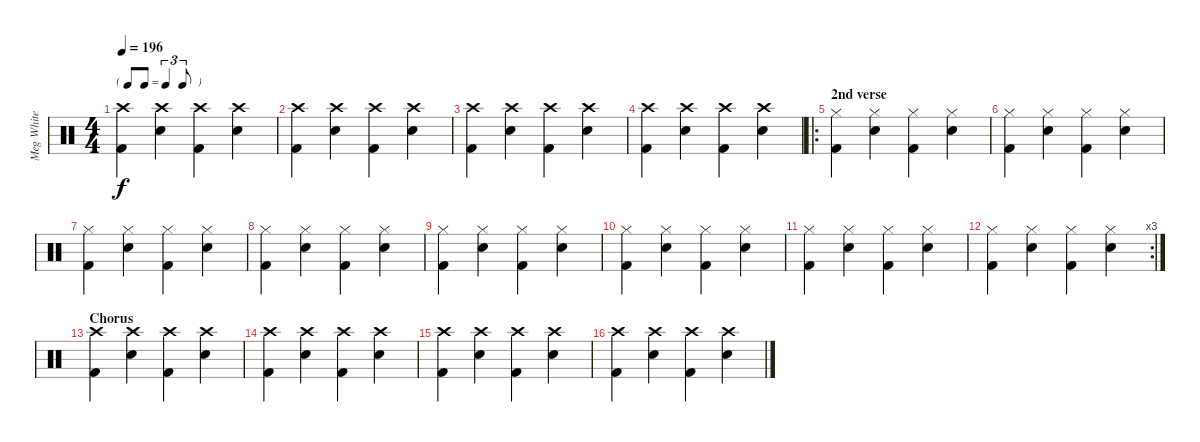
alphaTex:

\track ("Meg White" "Meg White") {instrument percussion}
\staff {score}
\articulation defaults
\ts (4 4)
\tf triplet8th
\tempo 196
\clef neutral
\ks c
("Crash high (hit)" "Kick (hit) 2").4{dy f} ("Crash high (hit)" "Electric Snare (hit)").4 ("Crash high (hit)" "Kick (hit) 2").4 ("Crash high (hit)" "Electric Snare (hit)").4 |
("Crash high (hit)" "Kick (hit) 2").4 ("Crash high (hit)" "Electric Snare (hit)").4 ("Crash high (hit)" "Kick (hit) 2").4 ("Crash high (hit)" "Electric Snare (hit)").4 |
("Crash high (hit)" "Kick (hit) 2").4 ("Crash high (hit)" "Electric Snare (hit)").4 ("Crash high (hit)" "Kick (hit) 2").4 ("Crash high (hit)" "Electric Snare (hit)").4 |
("Crash high (hit)" "Kick (hit) 2").4 ("Crash high (hit)" "Electric Snare (hit)").4 ("Crash high (hit)" "Kick (hit) 2").4 ("Crash high (hit)" "Electric Snare (hit)").4 |
\ro
\section ("" "2nd verse")
("Hi-Hat (closed)" "Kick (hit) 2").4 ("Hi-Hat (closed)" "Electric Snare (hit)").4 ("Hi-Hat (closed)" "Kick (hit) 2").4 ("Hi-Hat (closed)" "Electric Snare (hit)").4 |
("Hi-Hat (closed)" "Kick (hit) 2").4 ("Hi-Hat (closed)" "Electric Snare (hit)").4 ("Hi-Hat (closed)" "Kick (hit) 2").4 ("Hi-Hat (closed)" "Electric Snare (hit)").4 |
("Hi-Hat (closed)" "Kick (hit) 2").4 ("Hi-Hat (closed)" "Electric Snare (hit)").4 ("Hi-Hat (closed)" "Kick (hit) 2").4 ("Hi-Hat (closed)" "Electric Snare (hit)").4 |
("Hi-Hat (closed)" "Kick (hit) 2").4 ("Hi-Hat (closed)" "Electric Snare (hit)").4 ("Hi-Hat (closed)" "Kick (hit) 2").4 ("Hi-Hat (closed)" "Electric Snare (hit)").4 |
("Hi-Hat (closed)" "Kick (hit) 2").4 ("Hi-Hat (closed)" "Electric Snare (hit)").4 ("Hi-Hat (closed)" "Kick (hit) 2").4 ("Hi-Hat (closed)" "Electric Snare (hit)").4 |
("Hi-Hat (closed)" "Kick (hit) 2").4 ("Hi-Hat (closed)" "Electric Snare (hit)").4 ("Hi-Hat (closed)" "Kick (hit) 2").4 ("Hi-Hat (closed)" "Electric Snare (hit)").4 |
("Hi-Hat (closed)" "Kick (hit) 2").4 ("Hi-Hat (closed)" "Electric Snare (hit)").4 ("Hi-Hat (closed)" "Kick (hit) 2").4 ("Hi-Hat (closed)" "Electric Snare (hit)").4 |
\rc 3
("Hi-Hat (closed)" "Kick (hit) 2").4 ("Hi-Hat (closed)" "Electric Snare (hit)").4 ("Hi-Hat (closed)" "Kick (hit) 2").4 ("Hi-Hat (closed)" "Electric Snare (hit)").4 |
\section ("" "Chorus")
("Crash high (hit)" "Kick (hit) 2").4 ("Crash high (hit)" "Electric Snare (hit)").4 ("Crash high (hit)" "Kick (hit) 2").4 ("Crash high (hit)" "Electric Snare (hit)").4 |
("Crash high (hit)" "Kick (hit) 2").4 ("Crash high (hit)" "Electric Snare (hit)").4 ("Crash high (hit)" "Kick (hit) 2").4 ("Crash high (hit)" "Electric Snare (hit)").4 |
("Crash high (hit)" "Kick (hit) 2").4 ("Crash high (hit)" "Electric Snare (hit)").4 ("Crash high (hit)" "Kick (hit) 2").4 ("Crash high (hit)" "Electric Snare (hit)").4 |
("Crash high (hit)" "Kick (hit) 2").4 ("Crash high (hit)" "Electric Snare (hit)").4 ("Crash high (hit)" "Kick (hit) 2").4 ("Crash high (hit)" "Electric Snare (hit)").4
